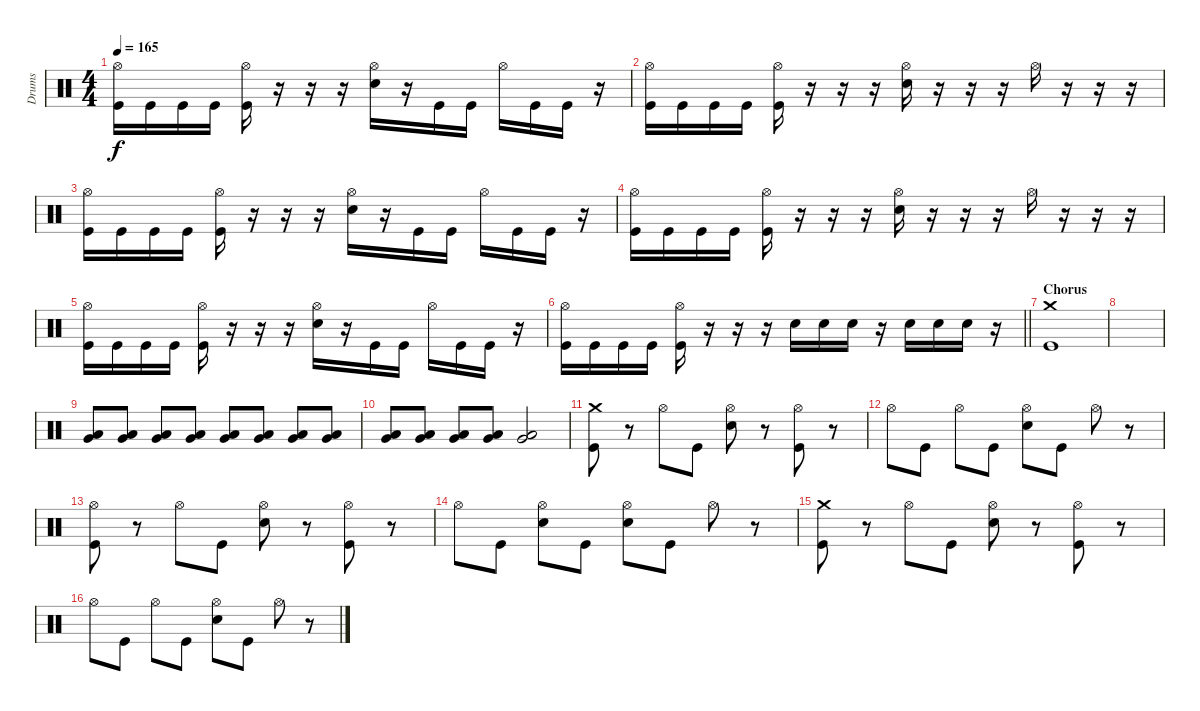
\track ("Drums" "Drums") {instrument percussion}
\staff {score}
\articulation defaults
\ts (4 4)
\tempo 165
\clef neutral
\ks c
("Hi-Hat (open)" "Kick (hit)").16{dy f} "Kick (hit)".16 "Kick (hit)".16 "Kick (hit)".16 ("Hi-Hat (open)" "Kick (hit)").16 r.16 r.16 r.16 ("Hi-Hat (open)" "Electric Snare (hit)").16 r.16 "Kick (hit)".16 "Kick (hit)".16 "Hi-Hat (open)".16 "Kick (hit)".16 "Kick (hit)".16 r.16 |
("Hi-Hat (open)" "Kick (hit)").16 "Kick (hit)".16 "Kick (hit)".16 "Kick (hit)".16 ("Hi-Hat (open)" "Kick (hit)").16 r.16 r.16 r.16 ("Hi-Hat (open)" "Electric Snare (hit)").16 r.16 r.16 r.16 "Hi-Hat (open)".16 r.16 r.16 r.16 |
("Hi-Hat (open)" "Kick (hit)").16 "Kick (hit)".16 "Kick (hit)".16 "Kick (hit)".16 ("Hi-Hat (open)" "Kick (hit)").16 r.16 r.16 r.16 ("Hi-Hat (open)" "Electric Snare (hit)").16 r.16 "Kick (hit)".16 "Kick (hit)".16 "Hi-Hat (open)".16 "Kick (hit)".16 "Kick (hit)".16 r.16 |
("Hi-Hat (open)" "Kick (hit)").16 "Kick (hit)".16 "Kick (hit)".16 "Kick (hit)".16 ("Hi-Hat (open)" "Kick (hit)").16 r.16 r.16 r.16 ("Hi-Hat (open)" "Electric Snare (hit)").16 r.16 r.16 r.16 "Hi-Hat (open)".16 r.16 r.16 r.16 |
("Hi-Hat (open)" "Kick (hit)").16 "Kick (hit)".16 "Kick (hit)".16 "Kick (hit)".16 ("Hi-Hat (open)" "Kick (hit)").16 r.16 r.16 r.16 ("Hi-Hat (open)" "Electric Snare (hit)").16 r.16 "Kick (hit)".16 "Kick (hit)".16 "Hi-Hat (open)".16 "Kick (hit)".16 "Kick (hit)".16 r.16 |
\barLineRight lightlight
("Hi-Hat (open)" "Kick (hit)").16 "Kick (hit)".16 "Kick (hit)".16 "Kick (hit)".16 ("Hi-Hat (open)" "Kick (hit)").16 r.16 r.16 r.16 "Electric Snare (hit)".16 "Electric Snare (hit)".16 "Electric Snare (hit)".16 r.16 "Electric Snare (hit)".16 "Electric Snare (hit)".16 "Electric Snare (hit)".16 r.16 |
\section ("" "Chorus")
("Crash medium (hit)" "Kick (hit)").1 |
|
("Very Low Tom (hit)" "Low Tom (hit)").8 ("Very Low Tom (hit)" "Low Tom (hit)").8 ("Very Low Tom (hit)" "Low Tom (hit)").8 ("Very Low Tom (hit)" "Low Tom (hit)").8 ("Very Low Tom (hit)" "Low Tom (hit)").8 ("Very Low Tom (hit)" "Low Tom (hit)").8 ("Very Low Tom (hit)" "Low Tom (hit)").8 ("Very Low Tom (hit)" "Low Tom (hit)").8 |
("Very Low Tom (hit)" "Low Tom (hit)").8 ("Very Low Tom (hit)" "Low Tom (hit)").8 ("Very Low Tom (hit)" "Low Tom (hit)").8 ("Very Low Tom (hit)" "Low Tom (hit)").8 ("Very Low Tom (hit)" "Low Tom (hit)").2 |
("Crash medium (hit)" "Kick (hit)").8 r.8 "Hi-Hat (open)".8 "Kick (hit)".8 ("Hi-Hat (open)" "Electric Snare (hit)").8 r.8 ("Hi-Hat (open)" "Kick (hit)").8 r.8 |
"Hi-Hat (open)".8 "Kick (hit)".8 "Hi-Hat (open)".8 "Kick (hit)".8 ("Hi-Hat (open)" "Electric Snare (hit)").8 "Kick (hit)".8 "Hi-Hat (open)".8 r.8 |
("Hi-Hat (open)" "Kick (hit)").8 r.8 "Hi-Hat (open)".8 "Kick (hit)".8 ("Hi-Hat (open)" "Electric Snare (hit)").8 r.8 ("Hi-Hat (open)" "Kick (hit)").8 r.8 |
"Hi-Hat (open)".8 "Kick (hit)".8 ("Hi-Hat (open)" "Electric Snare (hit)").8 "Kick (hit)".8 ("Hi-Hat (open)" "Electric Snare (hit)").8 "Kick (hit)".8 "Hi-Hat (open)".8 r.8 |
("Crash medium (hit)" "Kick (hit)").8 r.8 "Hi-Hat (open)".8 "Kick (hit)".8 ("Hi-Hat (open)" "Electric Snare (hit)").8 r.8 ("Hi-Hat (open)" "Kick (hit)").8 r.8 |
"Hi-Hat (open)".8 "Kick (hit)".8 "Hi-Hat (open)".8 "Kick (hit)".8 ("Hi-Hat (open)" "Electric Snare (hit)").8 "Kick (hit)".8 "Hi-Hat (open)".8 r.8
